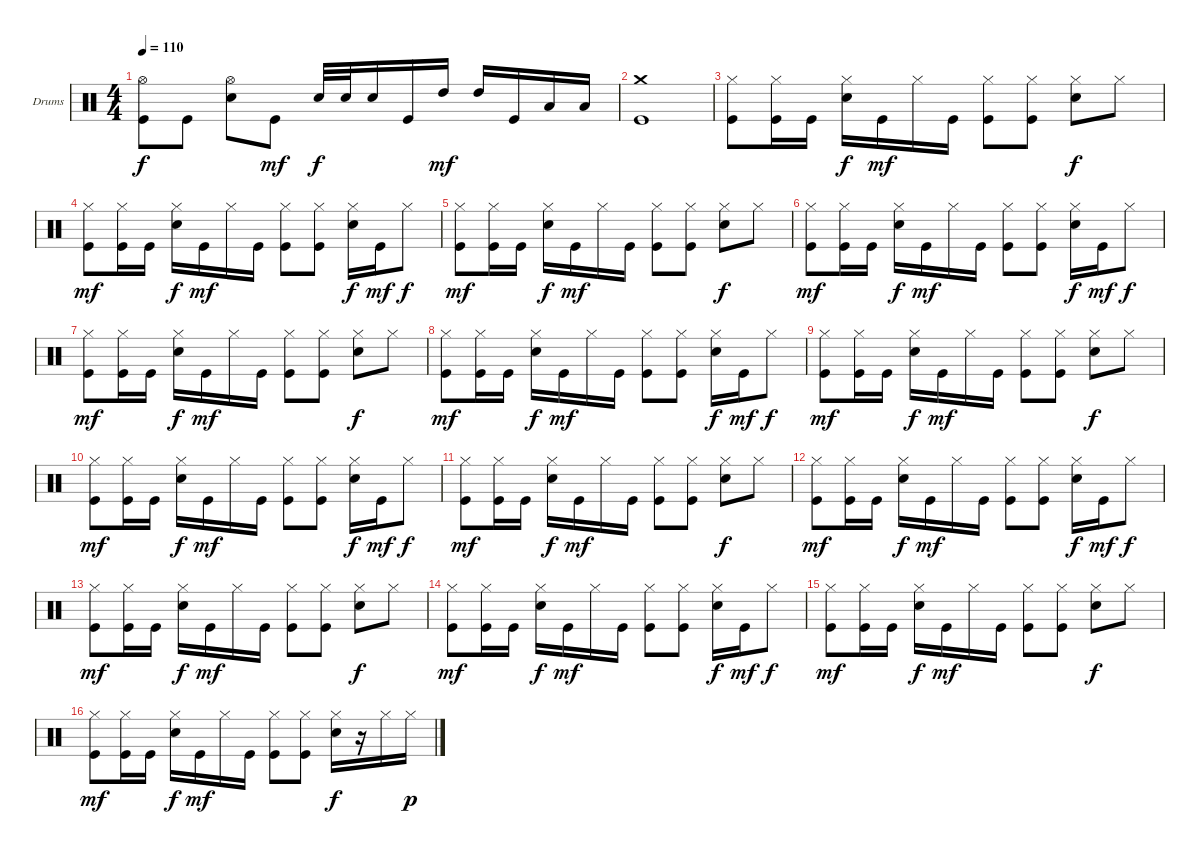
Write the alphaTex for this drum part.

\bracketExtendMode groupsimilarinstruments
\firstSystemTrackNameOrientation horizontal
\otherSystemsTrackNameOrientation horizontal
\track ("Drumkit" "Drums") {instrument percussion}
\staff {score}
\articulation defaults
\ts (4 4)
\tempo 110
\clef neutral
\ks c
("Hi-Hat (open)" "Kick (hit)").8{dy f} "Kick (hit)".8 ("Hi-Hat (open)" "Snare (hit) 2").8 "Kick (hit)".8{dy mf} "Snare (hit) 2".32{dy f} "Snare (hit) 2".32 "Snare (hit) 2".16 "Kick (hit)".16 "High Tom (hit)".16{dy mf} "High Tom (hit)".16 "Kick (hit)".16 "Low Tom (hit)".16 "Low Tom (hit)".16 |
("Crash medium (hit)" "Kick (hit)").1 |
("Kick (hit)" "Hi-Hat (closed)").8 ("Kick (hit)" "Hi-Hat (closed)").16 "Kick (hit)".16 ("Hi-Hat (closed)" "Snare (hit) 2").16{dy f} "Kick (hit)".16{dy mf} "Hi-Hat (closed)".16 "Kick (hit)".16 ("Kick (hit)" "Hi-Hat (closed)").8 ("Kick (hit)" "Hi-Hat (closed)").8 ("Hi-Hat (closed)" "Snare (hit) 2").8{dy f} "Hi-Hat (closed)".8 |
("Kick (hit)" "Hi-Hat (closed)").8{dy mf} ("Kick (hit)" "Hi-Hat (closed)").16 "Kick (hit)".16 ("Hi-Hat (closed)" "Snare (hit) 2").16{dy f} "Kick (hit)".16{dy mf} "Hi-Hat (closed)".16 "Kick (hit)".16 ("Kick (hit)" "Hi-Hat (closed)").8 ("Kick (hit)" "Hi-Hat (closed)").8 ("Hi-Hat (closed)" "Snare (hit) 2").16{dy f} "Kick (hit)".16{dy mf} "Hi-Hat (closed)".8{dy f} |
("Kick (hit)" "Hi-Hat (closed)").8{dy mf} ("Kick (hit)" "Hi-Hat (closed)").16 "Kick (hit)".16 ("Hi-Hat (closed)" "Snare (hit) 2").16{dy f} "Kick (hit)".16{dy mf} "Hi-Hat (closed)".16 "Kick (hit)".16 ("Kick (hit)" "Hi-Hat (closed)").8 ("Kick (hit)" "Hi-Hat (closed)").8 ("Hi-Hat (closed)" "Snare (hit) 2").8{dy f} "Hi-Hat (closed)".8 |
("Kick (hit)" "Hi-Hat (closed)").8{dy mf} ("Kick (hit)" "Hi-Hat (closed)").16 "Kick (hit)".16 ("Hi-Hat (closed)" "Snare (hit) 2").16{dy f} "Kick (hit)".16{dy mf} "Hi-Hat (closed)".16 "Kick (hit)".16 ("Kick (hit)" "Hi-Hat (closed)").8 ("Kick (hit)" "Hi-Hat (closed)").8 ("Hi-Hat (closed)" "Snare (hit) 2").16{dy f} "Kick (hit)".16{dy mf} "Hi-Hat (closed)".8{dy f} |
("Kick (hit)" "Hi-Hat (closed)").8{dy mf} ("Kick (hit)" "Hi-Hat (closed)").16 "Kick (hit)".16 ("Hi-Hat (closed)" "Snare (hit) 2").16{dy f} "Kick (hit)".16{dy mf} "Hi-Hat (closed)".16 "Kick (hit)".16 ("Kick (hit)" "Hi-Hat (closed)").8 ("Kick (hit)" "Hi-Hat (closed)").8 ("Hi-Hat (closed)" "Snare (hit) 2").8{dy f} "Hi-Hat (closed)".8 |
("Kick (hit)" "Hi-Hat (closed)").8{dy mf} ("Kick (hit)" "Hi-Hat (closed)").16 "Kick (hit)".16 ("Hi-Hat (closed)" "Snare (hit) 2").16{dy f} "Kick (hit)".16{dy mf} "Hi-Hat (closed)".16 "Kick (hit)".16 ("Kick (hit)" "Hi-Hat (closed)").8 ("Kick (hit)" "Hi-Hat (closed)").8 ("Hi-Hat (closed)" "Snare (hit) 2").16{dy f} "Kick (hit)".16{dy mf} "Hi-Hat (closed)".8{dy f} |
("Kick (hit)" "Hi-Hat (closed)").8{dy mf} ("Kick (hit)" "Hi-Hat (closed)").16 "Kick (hit)".16 ("Hi-Hat (closed)" "Snare (hit) 2").16{dy f} "Kick (hit)".16{dy mf} "Hi-Hat (closed)".16 "Kick (hit)".16 ("Kick (hit)" "Hi-Hat (closed)").8 ("Kick (hit)" "Hi-Hat (closed)").8 ("Hi-Hat (closed)" "Snare (hit) 2").8{dy f} "Hi-Hat (closed)".8 |
("Kick (hit)" "Hi-Hat (closed)").8{dy mf} ("Kick (hit)" "Hi-Hat (closed)").16 "Kick (hit)".16 ("Hi-Hat (closed)" "Snare (hit) 2").16{dy f} "Kick (hit)".16{dy mf} "Hi-Hat (closed)".16 "Kick (hit)".16 ("Kick (hit)" "Hi-Hat (closed)").8 ("Kick (hit)" "Hi-Hat (closed)").8 ("Hi-Hat (closed)" "Snare (hit) 2").16{dy f} "Kick (hit)".16{dy mf} "Hi-Hat (closed)".8{dy f} |
("Kick (hit)" "Hi-Hat (closed)").8{dy mf} ("Kick (hit)" "Hi-Hat (closed)").16 "Kick (hit)".16 ("Hi-Hat (closed)" "Snare (hit) 2").16{dy f} "Kick (hit)".16{dy mf} "Hi-Hat (closed)".16 "Kick (hit)".16 ("Kick (hit)" "Hi-Hat (closed)").8 ("Kick (hit)" "Hi-Hat (closed)").8 ("Hi-Hat (closed)" "Snare (hit) 2").8{dy f} "Hi-Hat (closed)".8 |
("Kick (hit)" "Hi-Hat (closed)").8{dy mf} ("Kick (hit)" "Hi-Hat (closed)").16 "Kick (hit)".16 ("Hi-Hat (closed)" "Snare (hit) 2").16{dy f} "Kick (hit)".16{dy mf} "Hi-Hat (closed)".16 "Kick (hit)".16 ("Kick (hit)" "Hi-Hat (closed)").8 ("Kick (hit)" "Hi-Hat (closed)").8 ("Hi-Hat (closed)" "Snare (hit) 2").16{dy f} "Kick (hit)".16{dy mf} "Hi-Hat (closed)".8{dy f} |
("Kick (hit)" "Hi-Hat (closed)").8{dy mf} ("Kick (hit)" "Hi-Hat (closed)").16 "Kick (hit)".16 ("Hi-Hat (closed)" "Snare (hit) 2").16{dy f} "Kick (hit)".16{dy mf} "Hi-Hat (closed)".16 "Kick (hit)".16 ("Kick (hit)" "Hi-Hat (closed)").8 ("Kick (hit)" "Hi-Hat (closed)").8 ("Hi-Hat (closed)" "Snare (hit) 2").8{dy f} "Hi-Hat (closed)".8 |
("Kick (hit)" "Hi-Hat (closed)").8{dy mf} ("Kick (hit)" "Hi-Hat (closed)").16 "Kick (hit)".16 ("Hi-Hat (closed)" "Snare (hit) 2").16{dy f} "Kick (hit)".16{dy mf} "Hi-Hat (closed)".16 "Kick (hit)".16 ("Kick (hit)" "Hi-Hat (closed)").8 ("Kick (hit)" "Hi-Hat (closed)").8 ("Hi-Hat (closed)" "Snare (hit) 2").16{dy f} "Kick (hit)".16{dy mf} "Hi-Hat (closed)".8{dy f} |
("Kick (hit)" "Hi-Hat (closed)").8{dy mf} ("Kick (hit)" "Hi-Hat (closed)").16 "Kick (hit)".16 ("Hi-Hat (closed)" "Snare (hit) 2").16{dy f} "Kick (hit)".16{dy mf} "Hi-Hat (closed)".16 "Kick (hit)".16 ("Kick (hit)" "Hi-Hat (closed)").8 ("Kick (hit)" "Hi-Hat (closed)").8 ("Hi-Hat (closed)" "Snare (hit) 2").8{dy f} "Hi-Hat (closed)".8 |
("Kick (hit)" "Hi-Hat (closed)").8{dy mf} ("Kick (hit)" "Hi-Hat (closed)").16 "Kick (hit)".16 ("Hi-Hat (closed)" "Snare (hit) 2").16{dy f} "Kick (hit)".16{dy mf} "Hi-Hat (closed)".16 "Kick (hit)".16 ("Kick (hit)" "Hi-Hat (closed)").8 ("Kick (hit)" "Hi-Hat (closed)").8 ("Hi-Hat (closed)" "Snare (hit) 2").16{dy f} r.16 "Hi-Hat (closed)".16 "Hi-Hat (closed)".16{dy p}
